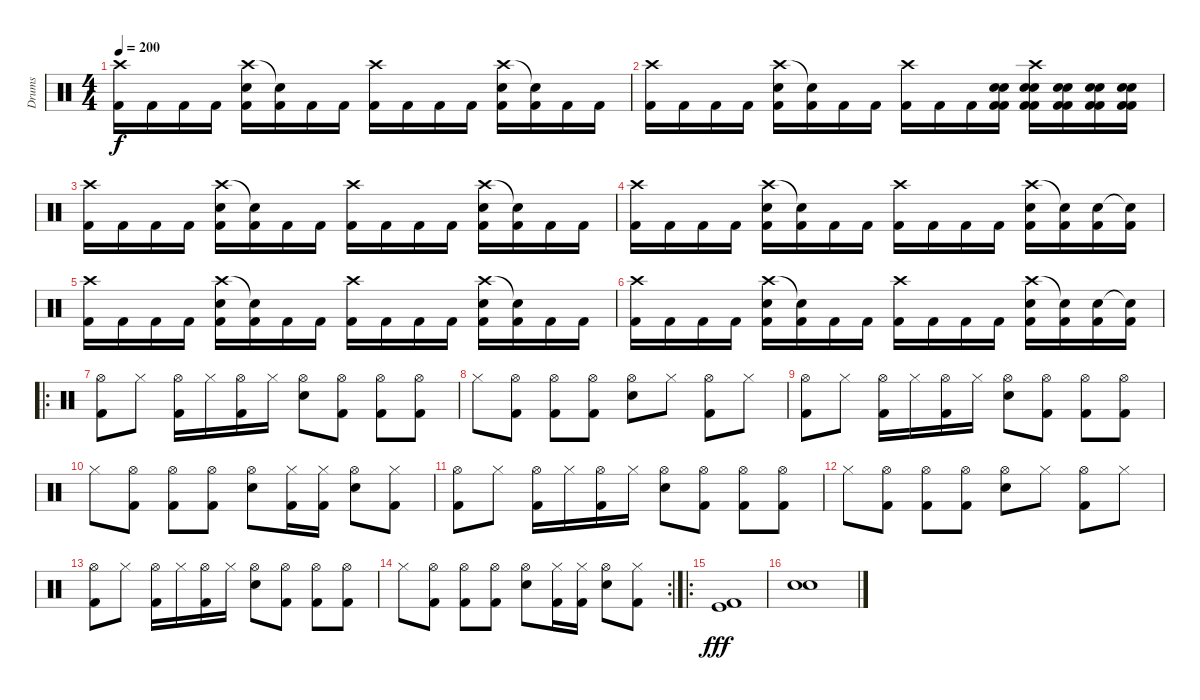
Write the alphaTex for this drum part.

\track ("Drums" "Drums") {instrument percussion}
\staff {score}
\articulation defaults
\ts (4 4)
\tempo 200
\clef neutral
\ks c
("Crash high (hit)" "Kick (hit) 2").16{dy f} "Kick (hit) 2".16 "Kick (hit) 2".16 "Kick (hit) 2".16 ("Crash high (hit)" "Electric Snare (hit)" "Kick (hit) 2").16 ("Snare (hit)"{t} "Kick (hit) 2").16 "Kick (hit) 2".16 "Kick (hit) 2".16 ("Crash high (hit)" "Kick (hit) 2").16 "Kick (hit) 2".16 "Kick (hit) 2".16 "Kick (hit) 2".16 ("Crash high (hit)" "Electric Snare (hit)" "Kick (hit) 2").16 ("Snare (hit)"{t} "Kick (hit) 2").16 "Kick (hit) 2".16 "Kick (hit) 2".16 |
("Crash high (hit)" "Kick (hit) 2").16 "Kick (hit) 2".16 "Kick (hit) 2".16 "Kick (hit) 2".16 ("Crash high (hit)" "Electric Snare (hit)" "Kick (hit) 2").16 ("Snare (hit)"{t} "Kick (hit) 2").16 "Kick (hit) 2".16 "Kick (hit) 2".16 ("Crash high (hit)" "Kick (hit) 2").16 "Kick (hit) 2".16 "Kick (hit) 2".16 ("Electric Snare (hit)" "Kick (hit) 2" "Electric Snare (hit)" "Kick (hit) 2").16 ("Crash high (hit)" "Electric Snare (hit)" "Kick (hit) 2" "Electric Snare (hit)" "Kick (hit) 2").16 ("Electric Snare (hit)" "Kick (hit) 2" "Electric Snare (hit)" "Kick (hit) 2").16 ("Electric Snare (hit)" "Kick (hit) 2" "Electric Snare (hit)" "Kick (hit) 2").16 ("Electric Snare (hit)" "Kick (hit) 2" "Electric Snare (hit)" "Kick (hit) 2").16 |
("Crash high (hit)" "Kick (hit) 2").16 "Kick (hit) 2".16 "Kick (hit) 2".16 "Kick (hit) 2".16 ("Crash high (hit)" "Electric Snare (hit)" "Kick (hit) 2").16 ("Snare (hit)"{t} "Kick (hit) 2").16 "Kick (hit) 2".16 "Kick (hit) 2".16 ("Crash high (hit)" "Kick (hit) 2").16 "Kick (hit) 2".16 "Kick (hit) 2".16 "Kick (hit) 2".16 ("Crash high (hit)" "Electric Snare (hit)" "Kick (hit) 2").16 ("Snare (hit)"{t} "Kick (hit) 2").16 "Kick (hit) 2".16 "Kick (hit) 2".16 |
("Crash high (hit)" "Kick (hit) 2").16 "Kick (hit) 2".16 "Kick (hit) 2".16 "Kick (hit) 2".16 ("Crash high (hit)" "Electric Snare (hit)" "Kick (hit) 2").16 ("Snare (hit)"{t} "Kick (hit) 2").16 "Kick (hit) 2".16 "Kick (hit) 2".16 ("Crash high (hit)" "Kick (hit) 2").16 "Kick (hit) 2".16 "Kick (hit) 2".16 "Kick (hit) 2".16 ("Crash high (hit)" "Electric Snare (hit)" "Kick (hit) 2").16 ("Snare (hit)"{t} "Kick (hit) 2").16 ("Electric Snare (hit)" "Kick (hit) 2").16 ("Snare (hit)"{t} "Kick (hit) 2").16 |
("Crash high (hit)" "Kick (hit) 2").16 "Kick (hit) 2".16 "Kick (hit) 2".16 "Kick (hit) 2".16 ("Crash high (hit)" "Electric Snare (hit)" "Kick (hit) 2").16 ("Snare (hit)"{t} "Kick (hit) 2").16 "Kick (hit) 2".16 "Kick (hit) 2".16 ("Crash high (hit)" "Kick (hit) 2").16 "Kick (hit) 2".16 "Kick (hit) 2".16 "Kick (hit) 2".16 ("Crash high (hit)" "Electric Snare (hit)" "Kick (hit) 2").16 ("Snare (hit)"{t} "Kick (hit) 2").16 "Kick (hit) 2".16 "Kick (hit) 2".16 |
("Crash high (hit)" "Kick (hit) 2").16 "Kick (hit) 2".16 "Kick (hit) 2".16 "Kick (hit) 2".16 ("Crash high (hit)" "Electric Snare (hit)" "Kick (hit) 2").16 ("Snare (hit)"{t} "Kick (hit) 2").16 "Kick (hit) 2".16 "Kick (hit) 2".16 ("Crash high (hit)" "Kick (hit) 2").16 "Kick (hit) 2".16 "Kick (hit) 2".16 "Kick (hit) 2".16 ("Crash high (hit)" "Electric Snare (hit)" "Kick (hit) 2").16 ("Snare (hit)"{t} "Kick (hit) 2").16 ("Electric Snare (hit)" "Kick (hit) 2").16 ("Snare (hit)"{t} "Kick (hit) 2").16 |
\ro
("Hi-Hat (open)" "Kick (hit) 2").8 "Hi-Hat (closed)".8 ("Hi-Hat (open)" "Kick (hit) 2").16 "Hi-Hat (closed)".16 ("Hi-Hat (open)" "Kick (hit) 2").16 "Hi-Hat (closed)".16 ("Hi-Hat (open)" "Electric Snare (hit)").8 ("Hi-Hat (open)" "Kick (hit) 2").8 ("Hi-Hat (open)" "Kick (hit) 2").8 ("Hi-Hat (open)" "Kick (hit) 2").8 |
"Hi-Hat (closed)".8 ("Hi-Hat (open)" "Kick (hit) 2").8 ("Hi-Hat (open)" "Kick (hit) 2").8 ("Hi-Hat (open)" "Kick (hit) 2").8 ("Hi-Hat (open)" "Electric Snare (hit)").8 "Hi-Hat (closed)".8 ("Hi-Hat (open)" "Kick (hit) 2").8 "Hi-Hat (closed)".8 |
("Hi-Hat (open)" "Kick (hit) 2").8 "Hi-Hat (closed)".8 ("Hi-Hat (open)" "Kick (hit) 2").16 "Hi-Hat (closed)".16 ("Hi-Hat (open)" "Kick (hit) 2").16 "Hi-Hat (closed)".16 ("Hi-Hat (open)" "Electric Snare (hit)").8 ("Hi-Hat (open)" "Kick (hit) 2").8 ("Hi-Hat (open)" "Kick (hit) 2").8 ("Hi-Hat (open)" "Kick (hit) 2").8 |
"Hi-Hat (closed)".8 ("Hi-Hat (open)" "Kick (hit) 2").8 ("Hi-Hat (open)" "Kick (hit) 2").8 ("Hi-Hat (open)" "Kick (hit) 2").8 ("Hi-Hat (open)" "Electric Snare (hit)").8 ("Hi-Hat (closed)" "Kick (hit) 2").16 ("Hi-Hat (closed)" "Kick (hit) 2").16 ("Hi-Hat (open)" "Electric Snare (hit)").8 ("Hi-Hat (closed)" "Kick (hit) 2").8 |
("Hi-Hat (open)" "Kick (hit) 2").8 "Hi-Hat (closed)".8 ("Hi-Hat (open)" "Kick (hit) 2").16 "Hi-Hat (closed)".16 ("Hi-Hat (open)" "Kick (hit) 2").16 "Hi-Hat (closed)".16 ("Hi-Hat (open)" "Electric Snare (hit)").8 ("Hi-Hat (open)" "Kick (hit) 2").8 ("Hi-Hat (open)" "Kick (hit) 2").8 ("Hi-Hat (open)" "Kick (hit) 2").8 |
"Hi-Hat (closed)".8 ("Hi-Hat (open)" "Kick (hit) 2").8 ("Hi-Hat (open)" "Kick (hit) 2").8 ("Hi-Hat (open)" "Kick (hit) 2").8 ("Hi-Hat (open)" "Electric Snare (hit)").8 "Hi-Hat (closed)".8 ("Hi-Hat (open)" "Kick (hit) 2").8 "Hi-Hat (closed)".8 |
("Hi-Hat (open)" "Kick (hit) 2").8 "Hi-Hat (closed)".8 ("Hi-Hat (open)" "Kick (hit) 2").16 "Hi-Hat (closed)".16 ("Hi-Hat (open)" "Kick (hit) 2").16 "Hi-Hat (closed)".16 ("Hi-Hat (open)" "Electric Snare (hit)").8 ("Hi-Hat (open)" "Kick (hit) 2").8 ("Hi-Hat (open)" "Kick (hit) 2").8 ("Hi-Hat (open)" "Kick (hit) 2").8 |
\rc 2 "Hi-Hat (closed)".8
("Hi-Hat (open)" "Kick (hit) 2").8 ("Hi-Hat (open)" "Kick (hit) 2").8 ("Hi-Hat (open)" "Kick (hit) 2").8 ("Hi-Hat (open)" "Electric Snare (hit)").8 ("Hi-Hat (closed)" "Kick (hit) 2").16 ("Hi-Hat (closed)" "Kick (hit) 2").16 ("Hi-Hat (open)" "Electric Snare (hit)").8 ("Hi-Hat (closed)" "Kick (hit) 2").8 |
\ro
("Kick (hit)" "Kick (hit) 2").1{dy fff} |
("Electric Snare (hit)" "Electric Snare (hit)").1
